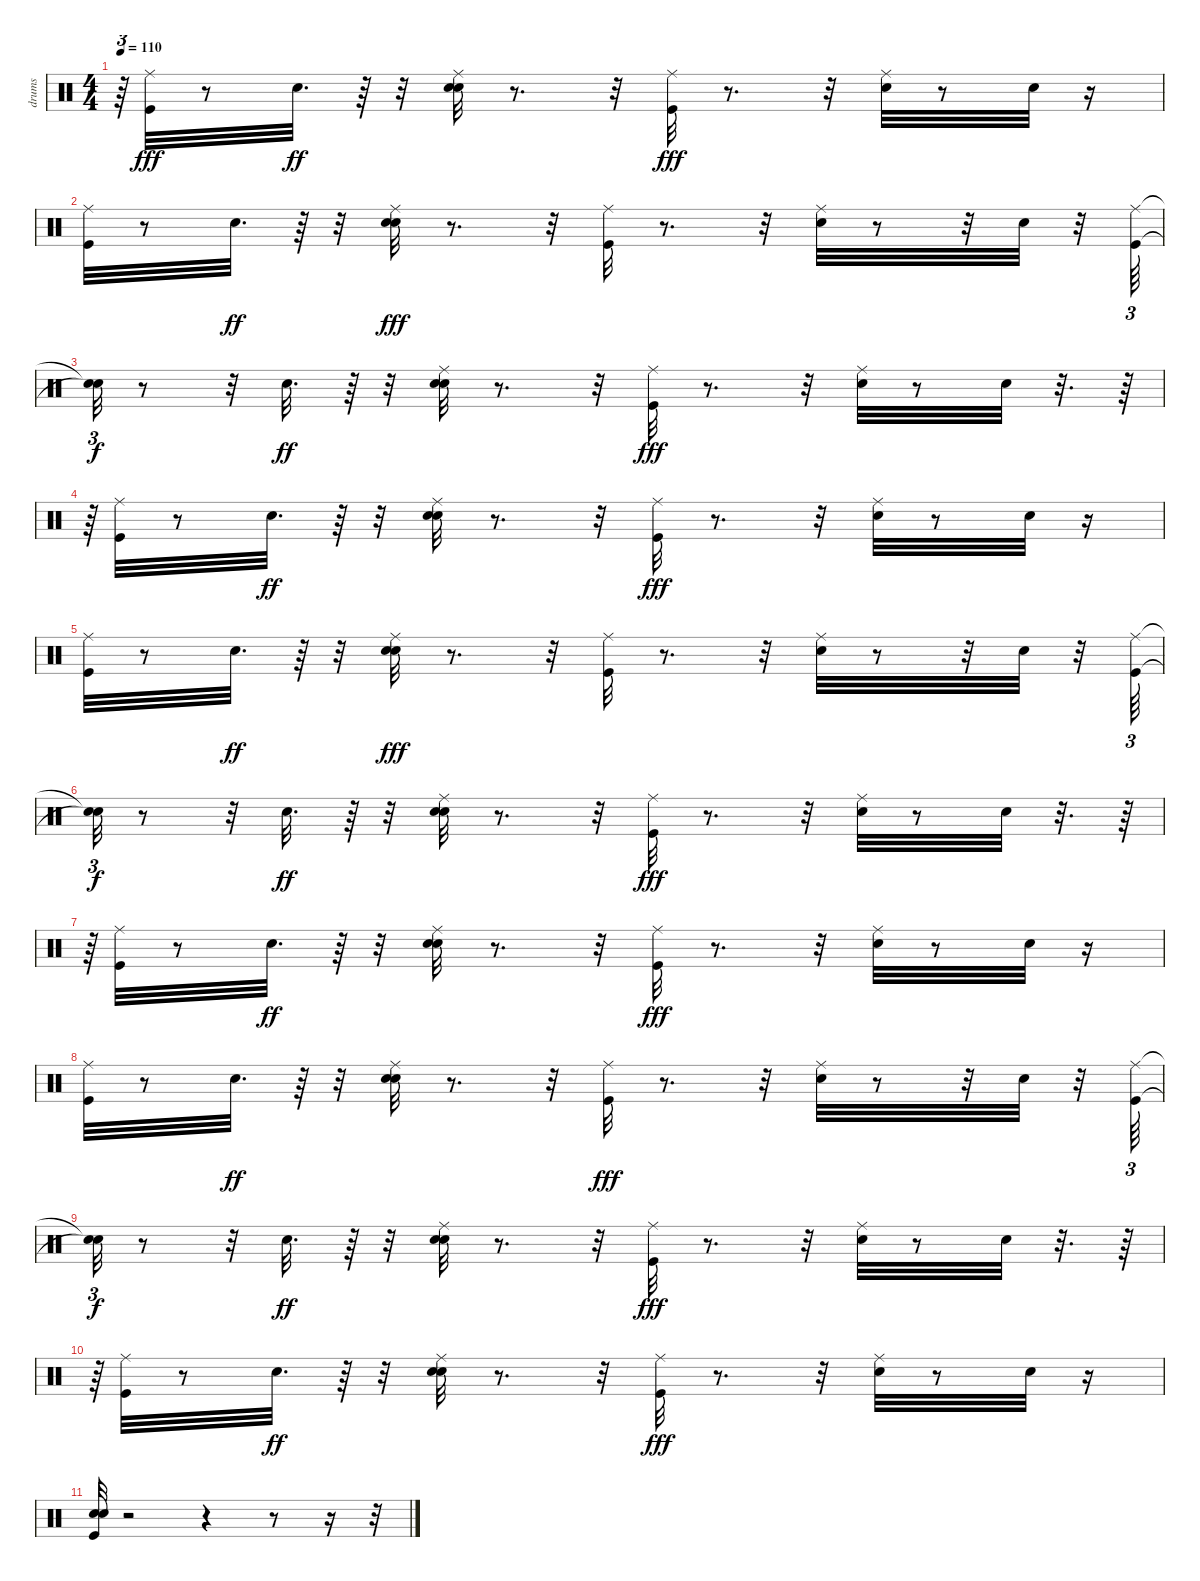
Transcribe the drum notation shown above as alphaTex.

\track ("drums    " "drums    ") {instrument percussion}
\staff {score}
\articulation defaults
\ts (4 4)
\tempo 110
\clef neutral
\ks c
r.64{tu (3 2) dy fff} ("Kick (hit)" "Ride (middle)").32 r.8 "Hand Clap (hit)".32{d dy ff} r.64 r.32 ("Snare (hit) 2" "Ride (middle)" "Hand Clap (hit)").32 r.8{d} r.32 ("Kick (hit)" "Ride (middle)").32{dy fff} r.8{d} r.32 ("Snare (hit) 2" "Ride (middle)").32 r.8 "Snare (hit) 2".32 r.16 |
("Kick (hit)" "Ride (middle)").32 r.8 "Hand Clap (hit)".32{d dy ff} r.64 r.32 ("Snare (hit) 2" "Hand Clap (hit)" "Ride (middle)").32{dy fff} r.8{d} r.32 ("Kick (hit)" "Ride (middle)").32 r.8{d} r.32 ("Snare (hit) 2" "Ride (middle)").32 r.8 r.32 "Snare (hit) 2".32 r.32 ("Kick (hit)" "Ride (middle)").64{tu (3 2)} |
("Snare (hit)"{t} "Snare (hit)"{t}).32{tu (3 2) dy f} r.8 r.32 "Hand Clap (hit)".32{d dy ff} r.64 r.32 ("Snare (hit) 2" "Ride (middle)" "Hand Clap (hit)").32 r.8{d} r.32 ("Kick (hit)" "Ride (middle)").32{dy fff} r.8{d} r.32 ("Snare (hit) 2" "Ride (middle)").32 r.8 "Snare (hit) 2".32 r.32{d} r.64 |
r.64{tu (3 2)} ("Kick (hit)" "Ride (middle)").32 r.8 "Hand Clap (hit)".32{d dy ff} r.64 r.32 ("Snare (hit) 2" "Ride (middle)" "Hand Clap (hit)").32 r.8{d} r.32 ("Kick (hit)" "Ride (middle)").32{dy fff} r.8{d} r.32 ("Snare (hit) 2" "Ride (middle)").32 r.8 "Snare (hit) 2".32 r.16 |
("Kick (hit)" "Ride (middle)").32 r.8 "Hand Clap (hit)".32{d dy ff} r.64 r.32 ("Snare (hit) 2" "Hand Clap (hit)" "Ride (middle)").32{dy fff} r.8{d} r.32 ("Kick (hit)" "Ride (middle)").32 r.8{d} r.32 ("Snare (hit) 2" "Ride (middle)").32 r.8 r.32 "Snare (hit) 2".32 r.32 ("Kick (hit)" "Ride (middle)").64{tu (3 2)} |
("Snare (hit)"{t} "Snare (hit)"{t}).32{tu (3 2) dy f} r.8 r.32 "Hand Clap (hit)".32{d dy ff} r.64 r.32 ("Snare (hit) 2" "Ride (middle)" "Hand Clap (hit)").32 r.8{d} r.32 ("Kick (hit)" "Ride (middle)").32{dy fff} r.8{d} r.32 ("Snare (hit) 2" "Ride (middle)").32 r.8 "Snare (hit) 2".32 r.32{d} r.64 |
r.64{tu (3 2)} ("Kick (hit)" "Ride (middle)").32 r.8 "Hand Clap (hit)".32{d dy ff} r.64 r.32 ("Snare (hit) 2" "Ride (middle)" "Hand Clap (hit)").32 r.8{d} r.32 ("Kick (hit)" "Ride (middle)").32{dy fff} r.8{d} r.32 ("Snare (hit) 2" "Ride (middle)").32 r.8 "Snare (hit) 2".32 r.16 |
("Kick (hit)" "Ride (middle)").32 r.8 "Hand Clap (hit)".32{d dy ff} r.64 r.32 ("Snare (hit) 2" "Ride (middle)" "Hand Clap (hit)").32 r.8{d} r.32 ("Kick (hit)" "Ride (middle)").32{dy fff} r.8{d} r.32 ("Snare (hit) 2" "Ride (middle)").32 r.8 r.32 "Snare (hit) 2".32 r.32 ("Kick (hit)" "Ride (middle)").64{tu (3 2)} |
("Snare (hit)"{t} "Snare (hit)"{t}).32{tu (3 2) dy f} r.8 r.32 "Hand Clap (hit)".32{d dy ff} r.64 r.32 ("Snare (hit) 2" "Ride (middle)" "Hand Clap (hit)").32 r.8{d} r.32 ("Kick (hit)" "Ride (middle)").32{dy fff} r.8{d} r.32 ("Snare (hit) 2" "Ride (middle)").32 r.8 "Snare (hit) 2".32 r.32{d} r.64 |
r.64{tu (3 2)} ("Kick (hit)" "Ride (middle)").32 r.8 "Hand Clap (hit)".32{d dy ff} r.64 r.32 ("Snare (hit) 2" "Ride (middle)" "Hand Clap (hit)").32 r.8{d} r.32 ("Kick (hit)" "Ride (middle)").32{dy fff} r.8{d} r.32 ("Snare (hit) 2" "Ride (middle)").32 r.8 "Snare (hit) 2".32 r.16 |
("Kick (hit)" "Hand Clap (hit)" "Snare (hit) 2").32 r.2 r.4 r.8 r.16 r.32
